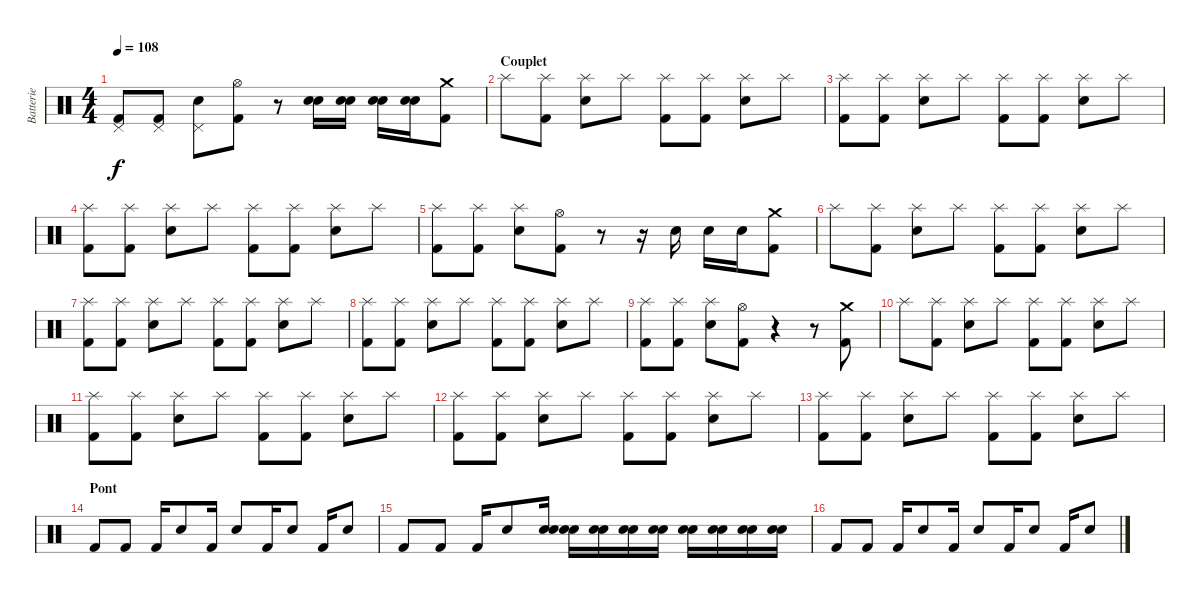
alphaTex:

\track ("Batterie" "Batterie") {instrument percussion}
\staff {score}
\articulation defaults
\ts (4 4)
\tempo 108
\clef neutral
\ks c
("Pedal Hi-Hat (hit)" "Kick (hit) 2").8{dy f} ("Pedal Hi-Hat (hit)" "Kick (hit) 2").8 ("Electric Snare (hit)" "Pedal Hi-Hat (hit)").8 ("Hi-Hat (open)" "Kick (hit) 2").8 r.8 ("Electric Snare (hit)" "Electric Snare (hit)").16 ("Electric Snare (hit)" "Electric Snare (hit)").16 ("Electric Snare (hit)" "Electric Snare (hit)").16 ("Electric Snare (hit)" "Electric Snare (hit)").16 ("Crash medium (hit)" "Kick (hit) 2").8 |
\section ("" "Couplet")
"Splash (hit)".8 ("Splash (hit)" "Kick (hit) 2").8 ("Electric Snare (hit)" "Splash (hit)").8 "Splash (hit)".8 ("Splash (hit)" "Kick (hit) 2").8 ("Splash (hit)" "Kick (hit) 2").8 ("Electric Snare (hit)" "Splash (hit)").8 "Splash (hit)".8 |
("Splash (hit)" "Kick (hit) 2").8 ("Splash (hit)" "Kick (hit) 2").8 ("Electric Snare (hit)" "Splash (hit)").8 "Splash (hit)".8 ("Splash (hit)" "Kick (hit) 2").8 ("Splash (hit)" "Kick (hit) 2").8 ("Electric Snare (hit)" "Splash (hit)").8 "Splash (hit)".8 |
("Splash (hit)" "Kick (hit) 2").8 ("Splash (hit)" "Kick (hit) 2").8 ("Electric Snare (hit)" "Splash (hit)").8 "Splash (hit)".8 ("Splash (hit)" "Kick (hit) 2").8 ("Splash (hit)" "Kick (hit) 2").8 ("Electric Snare (hit)" "Splash (hit)").8 "Splash (hit)".8 |
("Splash (hit)" "Kick (hit) 2").8 ("Splash (hit)" "Kick (hit) 2").8 ("Electric Snare (hit)" "Splash (hit)").8 ("Hi-Hat (open)" "Kick (hit) 2").8 r.8 r.16 "Electric Snare (hit)".16 "Electric Snare (hit)".16 "Electric Snare (hit)".16 ("Crash medium (hit)" "Kick (hit) 2").8 |
"Splash (hit)".8 ("Splash (hit)" "Kick (hit) 2").8 ("Electric Snare (hit)" "Splash (hit)").8 "Splash (hit)".8 ("Splash (hit)" "Kick (hit) 2").8 ("Splash (hit)" "Kick (hit) 2").8 ("Electric Snare (hit)" "Splash (hit)").8 "Splash (hit)".8 |
("Splash (hit)" "Kick (hit) 2").8 ("Splash (hit)" "Kick (hit) 2").8 ("Electric Snare (hit)" "Splash (hit)").8 "Splash (hit)".8 ("Splash (hit)" "Kick (hit) 2").8 ("Splash (hit)" "Kick (hit) 2").8 ("Electric Snare (hit)" "Splash (hit)").8 "Splash (hit)".8 |
("Splash (hit)" "Kick (hit) 2").8 ("Splash (hit)" "Kick (hit) 2").8 ("Electric Snare (hit)" "Splash (hit)").8 "Splash (hit)".8 ("Splash (hit)" "Kick (hit) 2").8 ("Splash (hit)" "Kick (hit) 2").8 ("Electric Snare (hit)" "Splash (hit)").8 "Splash (hit)".8 |
("Splash (hit)" "Kick (hit) 2").8 ("Splash (hit)" "Kick (hit) 2").8 ("Electric Snare (hit)" "Splash (hit)").8 ("Hi-Hat (open)" "Kick (hit) 2").8 r.4 r.8 ("Crash medium (hit)" "Kick (hit) 2").8 |
"Splash (hit)".8 ("Splash (hit)" "Kick (hit) 2").8 ("Electric Snare (hit)" "Splash (hit)").8 "Splash (hit)".8 ("Splash (hit)" "Kick (hit) 2").8 ("Splash (hit)" "Kick (hit) 2").8 ("Electric Snare (hit)" "Splash (hit)").8 "Splash (hit)".8 |
("Splash (hit)" "Kick (hit) 2").8 ("Splash (hit)" "Kick (hit) 2").8 ("Electric Snare (hit)" "Splash (hit)").8 "Splash (hit)".8 ("Splash (hit)" "Kick (hit) 2").8 ("Splash (hit)" "Kick (hit) 2").8 ("Electric Snare (hit)" "Splash (hit)").8 "Splash (hit)".8 |
("Splash (hit)" "Kick (hit) 2").8 ("Splash (hit)" "Kick (hit) 2").8 ("Electric Snare (hit)" "Splash (hit)").8 "Splash (hit)".8 ("Splash (hit)" "Kick (hit) 2").8 ("Splash (hit)" "Kick (hit) 2").8 ("Electric Snare (hit)" "Splash (hit)").8 "Splash (hit)".8 |
("Splash (hit)" "Kick (hit) 2").8 ("Splash (hit)" "Kick (hit) 2").8 ("Electric Snare (hit)" "Splash (hit)").8 "Splash (hit)".8 ("Splash (hit)" "Kick (hit) 2").8 ("Splash (hit)" "Kick (hit) 2").8 ("Electric Snare (hit)" "Splash (hit)").8 "Splash (hit)".8 |
\section ("" "Pont")
"Kick (hit) 2".8 "Kick (hit) 2".8 "Kick (hit) 2".16 "Electric Snare (hit)".8 "Kick (hit) 2".16 "Electric Snare (hit)".8 "Kick (hit) 2".16 "Electric Snare (hit)".8 "Kick (hit) 2".16 "Electric Snare (hit)".8 |
"Kick (hit) 2".8 "Kick (hit) 2".8 "Kick (hit) 2".16 "Electric Snare (hit)".8 ("Electric Snare (hit)" "Electric Snare (hit)").16 ("Electric Snare (hit)" "Electric Snare (hit)").16 ("Electric Snare (hit)" "Electric Snare (hit)").16 ("Electric Snare (hit)" "Electric Snare (hit)").16 ("Electric Snare (hit)" "Electric Snare (hit)").16 ("Electric Snare (hit)" "Electric Snare (hit)").16 ("Electric Snare (hit)" "Electric Snare (hit)").16 ("Electric Snare (hit)" "Electric Snare (hit)").16 ("Electric Snare (hit)" "Electric Snare (hit)").16 |
"Kick (hit) 2".8 "Kick (hit) 2".8 "Kick (hit) 2".16 "Electric Snare (hit)".8 "Kick (hit) 2".16 "Electric Snare (hit)".8 "Kick (hit) 2".16 "Electric Snare (hit)".8 "Kick (hit) 2".16 "Electric Snare (hit)".8
